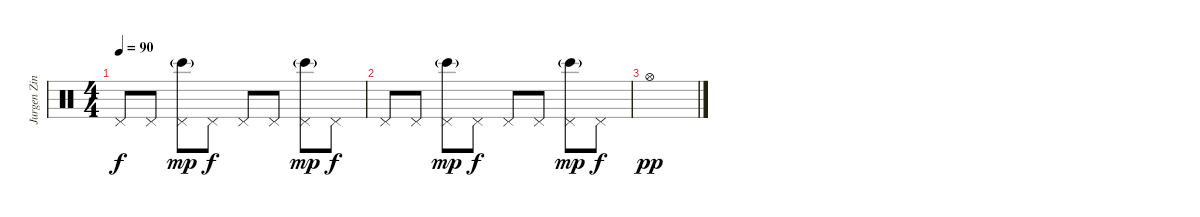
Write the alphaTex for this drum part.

\track ("Jurgen Zing" "Jurgen Zin") {instrument percussion}
\staff {score}
\articulation defaults
\ts (4 4)
\tempo 90
\clef neutral
\ks c "Pedal Hi-Hat (hit)".8{dy f} "Pedal Hi-Hat (hit)".8
("Pedal Hi-Hat (hit)" "Bongo High (hit)"{g}).8{dy mp} "Pedal Hi-Hat (hit)".8{dy f} "Pedal Hi-Hat (hit)".8 "Pedal Hi-Hat (hit)".8 ("Pedal Hi-Hat (hit)" "Bongo High (hit)"{g}).8{dy mp} "Pedal Hi-Hat (hit)".8{dy f} |
"Pedal Hi-Hat (hit)".8 "Pedal Hi-Hat (hit)".8 ("Pedal Hi-Hat (hit)" "Bongo High (hit)"{g}).8{dy mp} "Pedal Hi-Hat (hit)".8{dy f} "Pedal Hi-Hat (hit)".8 "Pedal Hi-Hat (hit)".8 ("Pedal Hi-Hat (hit)" "Bongo High (hit)"{g}).8{dy mp} "Pedal Hi-Hat (hit)".8{dy f} |
"Hi-Hat (open)".1{dy pp}
